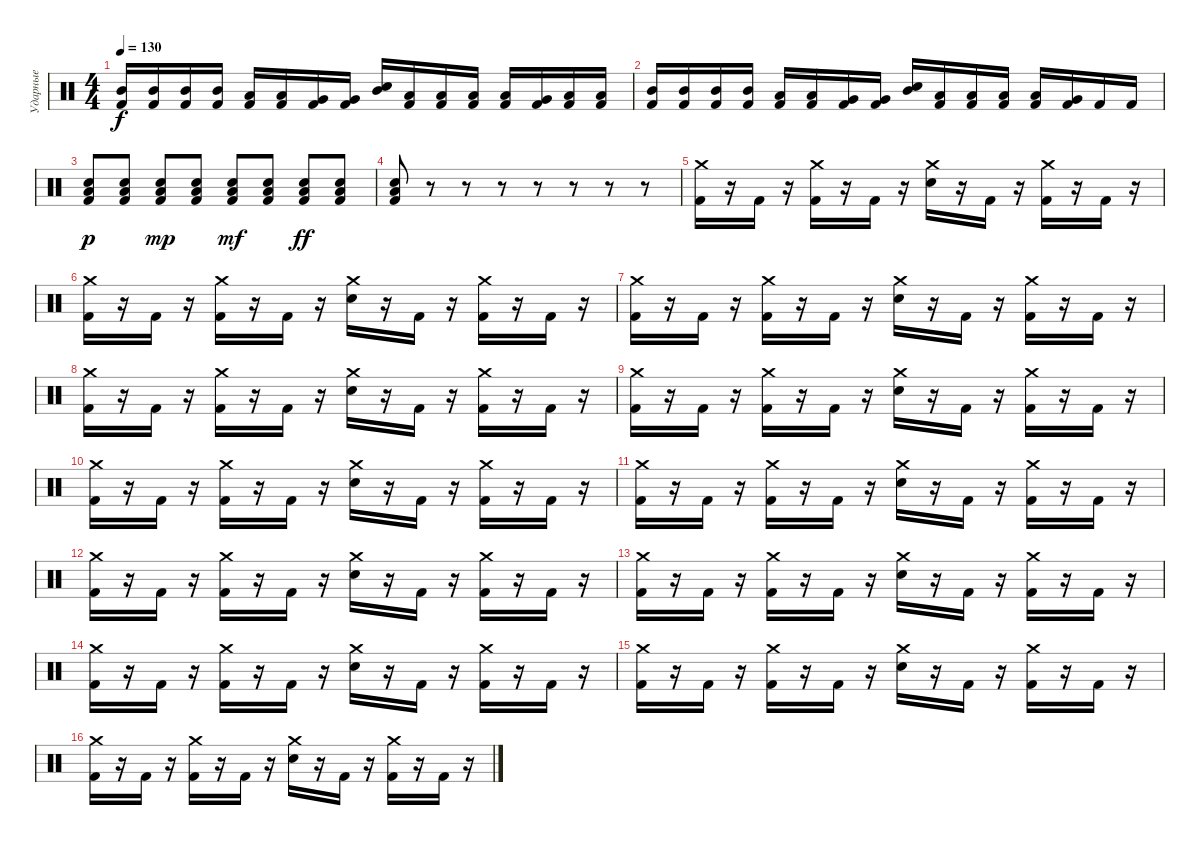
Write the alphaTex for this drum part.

\track ("Ударные" "Ударные") {instrument percussion}
\staff {score}
\articulation defaults
\ts (4 4)
\tempo 130
\clef neutral
\ks c
("Mid Tom (hit)" "Kick (hit) 2").16{dy f} ("Mid Tom (hit)" "Kick (hit) 2").16 ("Mid Tom (hit)" "Kick (hit) 2").16 ("Mid Tom (hit)" "Kick (hit) 2").16 ("Low Tom (hit)" "Kick (hit) 2").16 ("Low Tom (hit)" "Kick (hit) 2").16 ("Very Low Tom (hit)" "Kick (hit) 2").16 ("Very Low Tom (hit)" "Kick (hit) 2").16 ("Mid Tom (hit)" "Electric Snare (hit)").16 ("Low Tom (hit)" "Kick (hit) 2").16 ("Low Tom (hit)" "Kick (hit) 2").16 ("Low Tom (hit)" "Kick (hit) 2").16 ("Low Tom (hit)" "Kick (hit) 2").16 ("Very Low Tom (hit)" "Kick (hit) 2").16 ("Low Floor Tom (hit)" "Kick (hit) 2").16 ("Low Floor Tom (hit)" "Kick (hit) 2").16 |
("Mid Tom (hit)" "Kick (hit) 2").16 ("Mid Tom (hit)" "Kick (hit) 2").16 ("Mid Tom (hit)" "Kick (hit) 2").16 ("Mid Tom (hit)" "Kick (hit) 2").16 ("Low Tom (hit)" "Kick (hit) 2").16 ("Low Tom (hit)" "Kick (hit) 2").16 ("Very Low Tom (hit)" "Kick (hit) 2").16 ("Very Low Tom (hit)" "Kick (hit) 2").16 ("Mid Tom (hit)" "Electric Snare (hit)").16 ("Low Tom (hit)" "Kick (hit) 2").16 ("Low Tom (hit)" "Kick (hit) 2").16 ("Low Tom (hit)" "Kick (hit) 2").16 ("Low Tom (hit)" "Kick (hit) 2").16 ("Very Low Tom (hit)" "Kick (hit) 2").16 "Kick (hit) 2".16 "Kick (hit) 2".16 |
("Electric Snare (hit)" "Low Floor Tom (hit)" "Kick (hit) 2").8{dy p} ("Electric Snare (hit)" "Low Floor Tom (hit)" "Kick (hit) 2").8 ("Electric Snare (hit)" "Low Floor Tom (hit)" "Kick (hit) 2").8{dy mp} ("Electric Snare (hit)" "Low Floor Tom (hit)" "Kick (hit) 2").8 ("Electric Snare (hit)" "Low Floor Tom (hit)" "Kick (hit) 2").8{dy mf} ("Electric Snare (hit)" "Low Floor Tom (hit)" "Kick (hit) 2").8 ("Electric Snare (hit)" "Low Floor Tom (hit)" "Kick (hit) 2").8{dy ff} ("Electric Snare (hit)" "Low Floor Tom (hit)" "Kick (hit) 2").8 |
("Electric Snare (hit)" "Low Floor Tom (hit)" "Kick (hit) 2").8 r.8 r.8 r.8 r.8 r.8 r.8 r.8 |
("Crash medium (hit)" "Kick (hit) 2").16 r.16 "Kick (hit) 2".16 r.16 ("Crash medium (hit)" "Kick (hit) 2").16 r.16 "Kick (hit) 2".16 r.16 ("Crash medium (hit)" "Electric Snare (hit)").16 r.16 "Kick (hit) 2".16 r.16 ("Crash medium (hit)" "Kick (hit) 2").16 r.16 "Kick (hit) 2".16 r.16 |
("Crash medium (hit)" "Kick (hit) 2").16 r.16 "Kick (hit) 2".16 r.16 ("Crash medium (hit)" "Kick (hit) 2").16 r.16 "Kick (hit) 2".16 r.16 ("Crash medium (hit)" "Electric Snare (hit)").16 r.16 "Kick (hit) 2".16 r.16 ("Crash medium (hit)" "Kick (hit) 2").16 r.16 "Kick (hit) 2".16 r.16 |
("Crash medium (hit)" "Kick (hit) 2").16 r.16 "Kick (hit) 2".16 r.16 ("Crash medium (hit)" "Kick (hit) 2").16 r.16 "Kick (hit) 2".16 r.16 ("Crash medium (hit)" "Electric Snare (hit)").16 r.16 "Kick (hit) 2".16 r.16 ("Crash medium (hit)" "Kick (hit) 2").16 r.16 "Kick (hit) 2".16 r.16 |
("Crash medium (hit)" "Kick (hit) 2").16 r.16 "Kick (hit) 2".16 r.16 ("Crash medium (hit)" "Kick (hit) 2").16 r.16 "Kick (hit) 2".16 r.16 ("Crash medium (hit)" "Electric Snare (hit)").16 r.16 "Kick (hit) 2".16 r.16 ("Crash medium (hit)" "Kick (hit) 2").16 r.16 "Kick (hit) 2".16 r.16 |
("Crash medium (hit)" "Kick (hit) 2").16 r.16 "Kick (hit) 2".16 r.16 ("Crash medium (hit)" "Kick (hit) 2").16 r.16 "Kick (hit) 2".16 r.16 ("Crash medium (hit)" "Electric Snare (hit)").16 r.16 "Kick (hit) 2".16 r.16 ("Crash medium (hit)" "Kick (hit) 2").16 r.16 "Kick (hit) 2".16 r.16 |
("Crash medium (hit)" "Kick (hit) 2").16 r.16 "Kick (hit) 2".16 r.16 ("Crash medium (hit)" "Kick (hit) 2").16 r.16 "Kick (hit) 2".16 r.16 ("Crash medium (hit)" "Electric Snare (hit)").16 r.16 "Kick (hit) 2".16 r.16 ("Crash medium (hit)" "Kick (hit) 2").16 r.16 "Kick (hit) 2".16 r.16 |
("Crash medium (hit)" "Kick (hit) 2").16 r.16 "Kick (hit) 2".16 r.16 ("Crash medium (hit)" "Kick (hit) 2").16 r.16 "Kick (hit) 2".16 r.16 ("Crash medium (hit)" "Electric Snare (hit)").16 r.16 "Kick (hit) 2".16 r.16 ("Crash medium (hit)" "Kick (hit) 2").16 r.16 "Kick (hit) 2".16 r.16 |
("Crash medium (hit)" "Kick (hit) 2").16 r.16 "Kick (hit) 2".16 r.16 ("Crash medium (hit)" "Kick (hit) 2").16 r.16 "Kick (hit) 2".16 r.16 ("Crash medium (hit)" "Electric Snare (hit)").16 r.16 "Kick (hit) 2".16 r.16 ("Crash medium (hit)" "Kick (hit) 2").16 r.16 "Kick (hit) 2".16 r.16 |
("Crash medium (hit)" "Kick (hit) 2").16 r.16 "Kick (hit) 2".16 r.16 ("Crash medium (hit)" "Kick (hit) 2").16 r.16 "Kick (hit) 2".16 r.16 ("Crash medium (hit)" "Electric Snare (hit)").16 r.16 "Kick (hit) 2".16 r.16 ("Crash medium (hit)" "Kick (hit) 2").16 r.16 "Kick (hit) 2".16 r.16 |
("Crash medium (hit)" "Kick (hit) 2").16 r.16 "Kick (hit) 2".16 r.16 ("Crash medium (hit)" "Kick (hit) 2").16 r.16 "Kick (hit) 2".16 r.16 ("Crash medium (hit)" "Electric Snare (hit)").16 r.16 "Kick (hit) 2".16 r.16 ("Crash medium (hit)" "Kick (hit) 2").16 r.16 "Kick (hit) 2".16 r.16 |
("Crash medium (hit)" "Kick (hit) 2").16 r.16 "Kick (hit) 2".16 r.16 ("Crash medium (hit)" "Kick (hit) 2").16 r.16 "Kick (hit) 2".16 r.16 ("Crash medium (hit)" "Electric Snare (hit)").16 r.16 "Kick (hit) 2".16 r.16 ("Crash medium (hit)" "Kick (hit) 2").16 r.16 "Kick (hit) 2".16 r.16 |
("Crash medium (hit)" "Kick (hit) 2").16 r.16 "Kick (hit) 2".16 r.16 ("Crash medium (hit)" "Kick (hit) 2").16 r.16 "Kick (hit) 2".16 r.16 ("Crash medium (hit)" "Electric Snare (hit)").16 r.16 "Kick (hit) 2".16 r.16 ("Crash medium (hit)" "Kick (hit) 2").16 r.16 "Kick (hit) 2".16 r.16
